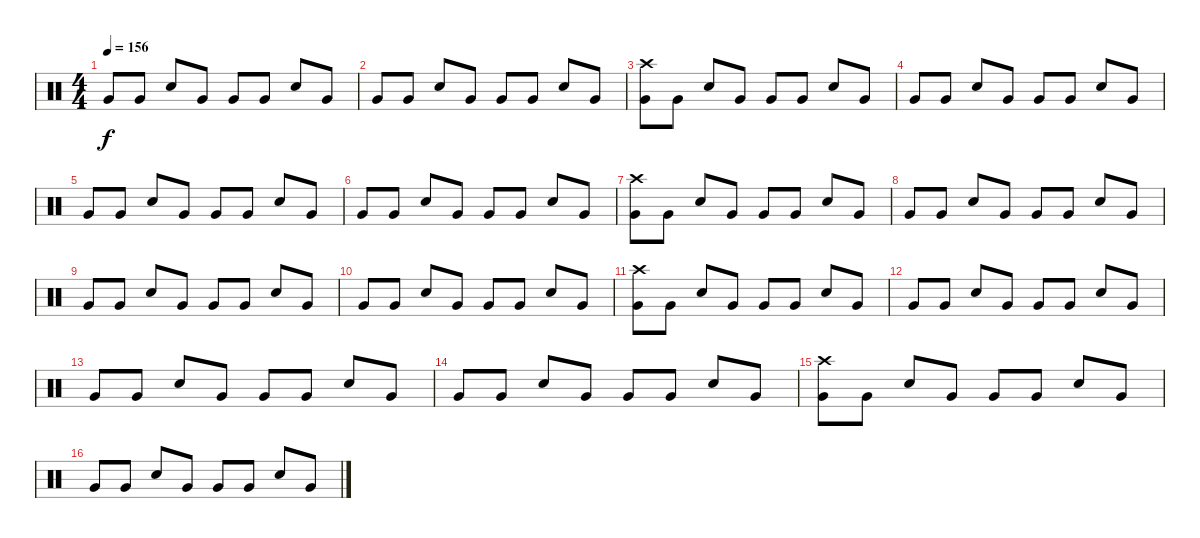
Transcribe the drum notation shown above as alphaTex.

\track "" {instrument percussion}
\staff {score}
\articulation defaults
\ts (4 4)
\tempo 156
\clef neutral
\ks c "Very Low Tom (hit)".8{dy f} "Very Low Tom (hit)".8 "Electric Snare (hit)".8 "Very Low Tom (hit)".8 "Very Low Tom (hit)".8 "Very Low Tom (hit)".8 "Electric Snare (hit)".8 "Very Low Tom (hit)".8
|
"Very Low Tom (hit)".8 "Very Low Tom (hit)".8 "Electric Snare (hit)".8 "Very Low Tom (hit)".8 "Very Low Tom (hit)".8 "Very Low Tom (hit)".8 "Electric Snare (hit)".8 "Very Low Tom (hit)".8 |
("Very Low Tom (hit)" "Crash high (hit)").8{volume 14} "Very Low Tom (hit)".8 "Electric Snare (hit)".8 "Very Low Tom (hit)".8 "Very Low Tom (hit)".8 "Very Low Tom (hit)".8 "Electric Snare (hit)".8 "Very Low Tom (hit)".8 |
"Very Low Tom (hit)".8 "Very Low Tom (hit)".8 "Electric Snare (hit)".8 "Very Low Tom (hit)".8 "Very Low Tom (hit)".8 "Very Low Tom (hit)".8 "Electric Snare (hit)".8 "Very Low Tom (hit)".8 |
"Very Low Tom (hit)".8 "Very Low Tom (hit)".8 "Electric Snare (hit)".8 "Very Low Tom (hit)".8 "Very Low Tom (hit)".8 "Very Low Tom (hit)".8 "Electric Snare (hit)".8 "Very Low Tom (hit)".8 |
"Very Low Tom (hit)".8 "Very Low Tom (hit)".8 "Electric Snare (hit)".8 "Very Low Tom (hit)".8 "Very Low Tom (hit)".8 "Very Low Tom (hit)".8 "Electric Snare (hit)".8 "Very Low Tom (hit)".8 |
("Very Low Tom (hit)" "Crash high (hit)").8{volume 14} "Very Low Tom (hit)".8 "Electric Snare (hit)".8 "Very Low Tom (hit)".8 "Very Low Tom (hit)".8 "Very Low Tom (hit)".8 "Electric Snare (hit)".8 "Very Low Tom (hit)".8 |
"Very Low Tom (hit)".8 "Very Low Tom (hit)".8 "Electric Snare (hit)".8 "Very Low Tom (hit)".8 "Very Low Tom (hit)".8 "Very Low Tom (hit)".8 "Electric Snare (hit)".8 "Very Low Tom (hit)".8 |
"Very Low Tom (hit)".8 "Very Low Tom (hit)".8 "Electric Snare (hit)".8 "Very Low Tom (hit)".8 "Very Low Tom (hit)".8 "Very Low Tom (hit)".8 "Electric Snare (hit)".8 "Very Low Tom (hit)".8 |
"Very Low Tom (hit)".8 "Very Low Tom (hit)".8 "Electric Snare (hit)".8 "Very Low Tom (hit)".8 "Very Low Tom (hit)".8 "Very Low Tom (hit)".8 "Electric Snare (hit)".8 "Very Low Tom (hit)".8 |
("Very Low Tom (hit)" "Crash high (hit)").8{volume 14} "Very Low Tom (hit)".8 "Electric Snare (hit)".8 "Very Low Tom (hit)".8 "Very Low Tom (hit)".8 "Very Low Tom (hit)".8 "Electric Snare (hit)".8 "Very Low Tom (hit)".8 |
"Very Low Tom (hit)".8 "Very Low Tom (hit)".8 "Electric Snare (hit)".8 "Very Low Tom (hit)".8 "Very Low Tom (hit)".8 "Very Low Tom (hit)".8 "Electric Snare (hit)".8 "Very Low Tom (hit)".8 |
"Very Low Tom (hit)".8 "Very Low Tom (hit)".8 "Electric Snare (hit)".8 "Very Low Tom (hit)".8 "Very Low Tom (hit)".8 "Very Low Tom (hit)".8 "Electric Snare (hit)".8 "Very Low Tom (hit)".8 |
"Very Low Tom (hit)".8 "Very Low Tom (hit)".8 "Electric Snare (hit)".8 "Very Low Tom (hit)".8 "Very Low Tom (hit)".8 "Very Low Tom (hit)".8 "Electric Snare (hit)".8 "Very Low Tom (hit)".8 |
("Very Low Tom (hit)" "Crash high (hit)").8{volume 14} "Very Low Tom (hit)".8 "Electric Snare (hit)".8 "Very Low Tom (hit)".8 "Very Low Tom (hit)".8 "Very Low Tom (hit)".8 "Electric Snare (hit)".8 "Very Low Tom (hit)".8 |
"Very Low Tom (hit)".8 "Very Low Tom (hit)".8 "Electric Snare (hit)".8 "Very Low Tom (hit)".8 "Very Low Tom (hit)".8 "Very Low Tom (hit)".8 "Electric Snare (hit)".8 "Very Low Tom (hit)".8
